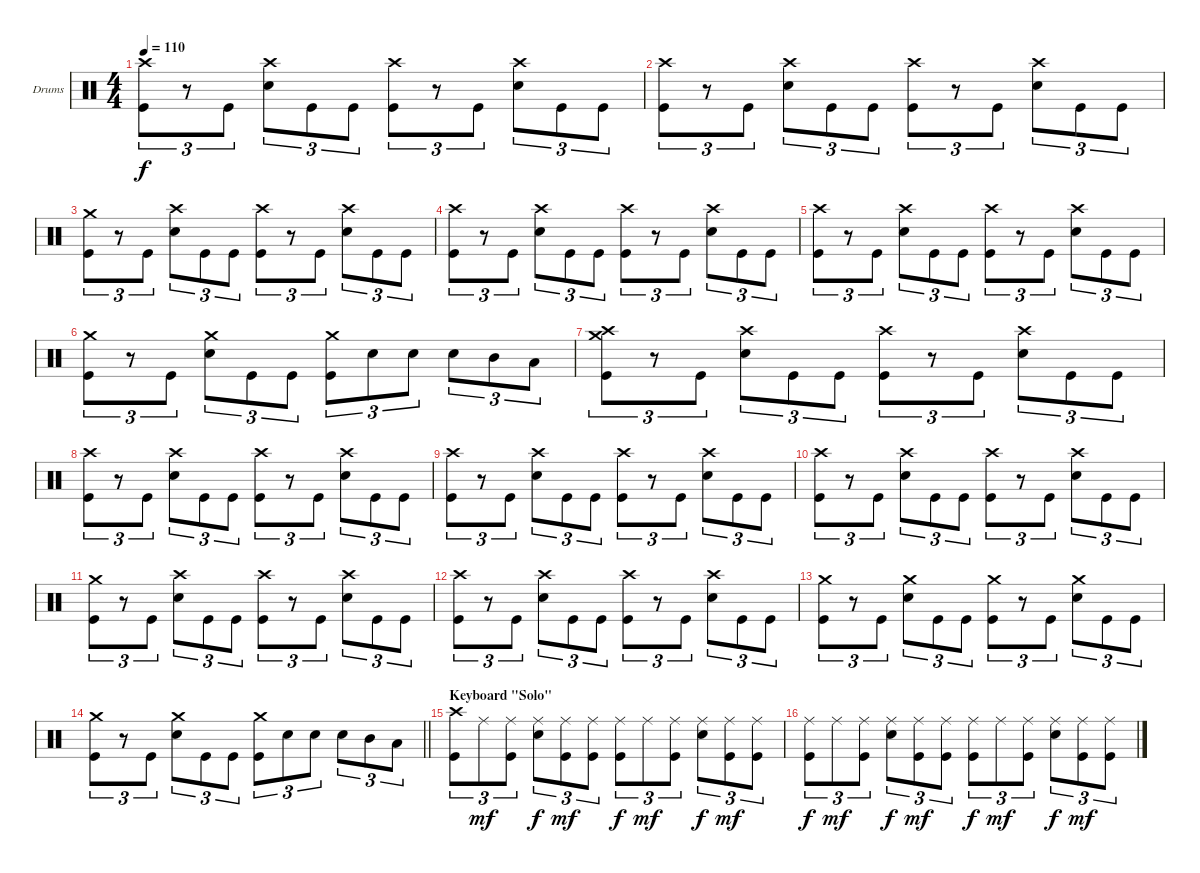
\bracketExtendMode groupsimilarinstruments
\firstSystemTrackNameOrientation horizontal
\otherSystemsTrackNameOrientation horizontal
\track ("Drumkit" "Drums") {instrument percussion}
\staff {score}
\articulation defaults
\ts (4 4)
\tempo 110
\clef neutral
\ks c
("Crash high (hit)" "Kick (hit)").8{tu (3 2) dy f} r.8{tu (3 2)} "Kick (hit)".8{tu (3 2)} ("Crash high (hit)" "Snare (hit) 2").8{tu (3 2)} "Kick (hit)".8{tu (3 2)} "Kick (hit)".8{tu (3 2)} ("Crash high (hit)" "Kick (hit)").8{tu (3 2)} r.8{tu (3 2)} "Kick (hit)".8{tu (3 2)} ("Crash high (hit)" "Snare (hit) 2").8{tu (3 2)} "Kick (hit)".8{tu (3 2)} "Kick (hit)".8{tu (3 2)} |
("Crash high (hit)" "Kick (hit)").8{tu (3 2)} r.8{tu (3 2)} "Kick (hit)".8{tu (3 2)} ("Crash high (hit)" "Snare (hit) 2").8{tu (3 2)} "Kick (hit)".8{tu (3 2)} "Kick (hit)".8{tu (3 2)} ("Crash high (hit)" "Kick (hit)").8{tu (3 2)} r.8{tu (3 2)} "Kick (hit)".8{tu (3 2)} ("Crash high (hit)" "Snare (hit) 2").8{tu (3 2)} "Kick (hit)".8{tu (3 2)} "Kick (hit)".8{tu (3 2)} |
("Crash medium (hit)" "Kick (hit)").8{tu (3 2)} r.8{tu (3 2)} "Kick (hit)".8{tu (3 2)} ("Crash high (hit)" "Snare (hit) 2").8{tu (3 2)} "Kick (hit)".8{tu (3 2)} "Kick (hit)".8{tu (3 2)} ("Crash high (hit)" "Kick (hit)").8{tu (3 2)} r.8{tu (3 2)} "Kick (hit)".8{tu (3 2)} ("Crash high (hit)" "Snare (hit) 2").8{tu (3 2)} "Kick (hit)".8{tu (3 2)} "Kick (hit)".8{tu (3 2)} |
("Crash high (hit)" "Kick (hit)").8{tu (3 2)} r.8{tu (3 2)} "Kick (hit)".8{tu (3 2)} ("Crash high (hit)" "Snare (hit) 2").8{tu (3 2)} "Kick (hit)".8{tu (3 2)} "Kick (hit)".8{tu (3 2)} ("Crash high (hit)" "Kick (hit)").8{tu (3 2)} r.8{tu (3 2)} "Kick (hit)".8{tu (3 2)} ("Crash high (hit)" "Snare (hit) 2").8{tu (3 2)} "Kick (hit)".8{tu (3 2)} "Kick (hit)".8{tu (3 2)} |
("Crash high (hit)" "Kick (hit)").8{tu (3 2)} r.8{tu (3 2)} "Kick (hit)".8{tu (3 2)} ("Crash high (hit)" "Snare (hit) 2").8{tu (3 2)} "Kick (hit)".8{tu (3 2)} "Kick (hit)".8{tu (3 2)} ("Crash high (hit)" "Kick (hit)").8{tu (3 2)} r.8{tu (3 2)} "Kick (hit)".8{tu (3 2)} ("Crash high (hit)" "Snare (hit) 2").8{tu (3 2)} "Kick (hit)".8{tu (3 2)} "Kick (hit)".8{tu (3 2)} |
("Crash medium (hit)" "Kick (hit)").8{tu (3 2)} r.8{tu (3 2)} "Kick (hit)".8{tu (3 2)} ("Crash medium (hit)" "Snare (hit) 2").8{tu (3 2)} "Kick (hit)".8{tu (3 2)} "Kick (hit)".8{tu (3 2)} ("Crash medium (hit)" "Kick (hit)").8{tu (3 2)} "Snare (hit) 2".8{tu (3 2)} "Snare (hit) 2".8{tu (3 2)} "Snare (hit) 2".8{tu (3 2)} "Mid Tom (hit)".8{tu (3 2)} "Low Tom (hit)".8{tu (3 2)} |
("Crash high (hit)" "Crash medium (hit)" "Kick (hit)").8{tu (3 2)} r.8{tu (3 2)} "Kick (hit)".8{tu (3 2)} ("Crash high (hit)" "Snare (hit) 2").8{tu (3 2)} "Kick (hit)".8{tu (3 2)} "Kick (hit)".8{tu (3 2)} ("Crash high (hit)" "Kick (hit)").8{tu (3 2)} r.8{tu (3 2)} "Kick (hit)".8{tu (3 2)} ("Crash high (hit)" "Snare (hit) 2").8{tu (3 2)} "Kick (hit)".8{tu (3 2)} "Kick (hit)".8{tu (3 2)} |
("Crash high (hit)" "Kick (hit)").8{tu (3 2)} r.8{tu (3 2)} "Kick (hit)".8{tu (3 2)} ("Crash high (hit)" "Snare (hit) 2").8{tu (3 2)} "Kick (hit)".8{tu (3 2)} "Kick (hit)".8{tu (3 2)} ("Crash high (hit)" "Kick (hit)").8{tu (3 2)} r.8{tu (3 2)} "Kick (hit)".8{tu (3 2)} ("Crash high (hit)" "Snare (hit) 2").8{tu (3 2)} "Kick (hit)".8{tu (3 2)} "Kick (hit)".8{tu (3 2)} |
("Crash high (hit)" "Kick (hit)").8{tu (3 2)} r.8{tu (3 2)} "Kick (hit)".8{tu (3 2)} ("Crash high (hit)" "Snare (hit) 2").8{tu (3 2)} "Kick (hit)".8{tu (3 2)} "Kick (hit)".8{tu (3 2)} ("Crash high (hit)" "Kick (hit)").8{tu (3 2)} r.8{tu (3 2)} "Kick (hit)".8{tu (3 2)} ("Crash high (hit)" "Snare (hit) 2").8{tu (3 2)} "Kick (hit)".8{tu (3 2)} "Kick (hit)".8{tu (3 2)} |
("Crash high (hit)" "Kick (hit)").8{tu (3 2)} r.8{tu (3 2)} "Kick (hit)".8{tu (3 2)} ("Crash high (hit)" "Snare (hit) 2").8{tu (3 2)} "Kick (hit)".8{tu (3 2)} "Kick (hit)".8{tu (3 2)} ("Crash high (hit)" "Kick (hit)").8{tu (3 2)} r.8{tu (3 2)} "Kick (hit)".8{tu (3 2)} ("Crash high (hit)" "Snare (hit) 2").8{tu (3 2)} "Kick (hit)".8{tu (3 2)} "Kick (hit)".8{tu (3 2)} |
("Crash medium (hit)" "Kick (hit)").8{tu (3 2)} r.8{tu (3 2)} "Kick (hit)".8{tu (3 2)} ("Crash high (hit)" "Snare (hit) 2").8{tu (3 2)} "Kick (hit)".8{tu (3 2)} "Kick (hit)".8{tu (3 2)} ("Crash high (hit)" "Kick (hit)").8{tu (3 2)} r.8{tu (3 2)} "Kick (hit)".8{tu (3 2)} ("Crash high (hit)" "Snare (hit) 2").8{tu (3 2)} "Kick (hit)".8{tu (3 2)} "Kick (hit)".8{tu (3 2)} |
("Crash high (hit)" "Kick (hit)").8{tu (3 2)} r.8{tu (3 2)} "Kick (hit)".8{tu (3 2)} ("Crash high (hit)" "Snare (hit) 2").8{tu (3 2)} "Kick (hit)".8{tu (3 2)} "Kick (hit)".8{tu (3 2)} ("Crash high (hit)" "Kick (hit)").8{tu (3 2)} r.8{tu (3 2)} "Kick (hit)".8{tu (3 2)} ("Crash high (hit)" "Snare (hit) 2").8{tu (3 2)} "Kick (hit)".8{tu (3 2)} "Kick (hit)".8{tu (3 2)} |
("Crash medium (hit)" "Kick (hit)").8{tu (3 2)} r.8{tu (3 2)} "Kick (hit)".8{tu (3 2)} ("Crash medium (hit)" "Snare (hit) 2").8{tu (3 2)} "Kick (hit)".8{tu (3 2)} "Kick (hit)".8{tu (3 2)} ("Crash medium (hit)" "Kick (hit)").8{tu (3 2)} r.8{tu (3 2)} "Kick (hit)".8{tu (3 2)} ("Crash medium (hit)" "Snare (hit) 2").8{tu (3 2)} "Kick (hit)".8{tu (3 2)} "Kick (hit)".8{tu (3 2)} |
\barLineRight lightlight
("Crash medium (hit)" "Kick (hit)").8{tu (3 2)} r.8{tu (3 2)} "Kick (hit)".8{tu (3 2)} ("Crash medium (hit)" "Snare (hit) 2").8{tu (3 2)} "Kick (hit)".8{tu (3 2)} "Kick (hit)".8{tu (3 2)} ("Crash medium (hit)" "Kick (hit)").8{tu (3 2)} "Snare (hit) 2".8{tu (3 2)} "Snare (hit) 2".8{tu (3 2)} "Snare (hit) 2".8{tu (3 2)} "Mid Tom (hit)".8{tu (3 2)} "Low Tom (hit)".8{tu (3 2)} |
\section ("" "Keyboard \"Solo\"")
("Crash high (hit)" "Kick (hit)").8{tu (3 2)} "Ride (middle)".8{tu (3 2) dy mf} ("Ride (middle)" "Kick (hit)").8{tu (3 2)} ("Ride (middle)" "Snare (hit) 2").8{tu (3 2) dy f} ("Ride (middle)" "Kick (hit)").8{tu (3 2) dy mf} ("Ride (middle)" "Kick (hit)").8{tu (3 2)} ("Ride (middle)" "Kick (hit)").8{tu (3 2) dy f} "Ride (middle)".8{tu (3 2) dy mf} ("Ride (middle)" "Kick (hit)").8{tu (3 2)} ("Ride (middle)" "Snare (hit) 2").8{tu (3 2) dy f} ("Ride (middle)" "Kick (hit)").8{tu (3 2) dy mf} ("Ride (middle)" "Kick (hit)").8{tu (3 2)} |
("Ride (middle)" "Kick (hit)").8{tu (3 2) dy f} "Ride (middle)".8{tu (3 2) dy mf} ("Ride (middle)" "Kick (hit)").8{tu (3 2)} ("Ride (middle)" "Snare (hit) 2").8{tu (3 2) dy f} ("Ride (middle)" "Kick (hit)").8{tu (3 2) dy mf} ("Ride (middle)" "Kick (hit)").8{tu (3 2)} ("Ride (middle)" "Kick (hit)").8{tu (3 2) dy f} "Ride (middle)".8{tu (3 2) dy mf} ("Ride (middle)" "Kick (hit)").8{tu (3 2)} ("Ride (middle)" "Snare (hit) 2").8{tu (3 2) dy f} ("Ride (middle)" "Kick (hit)").8{tu (3 2) dy mf} ("Ride (middle)" "Kick (hit)").8{tu (3 2)}
